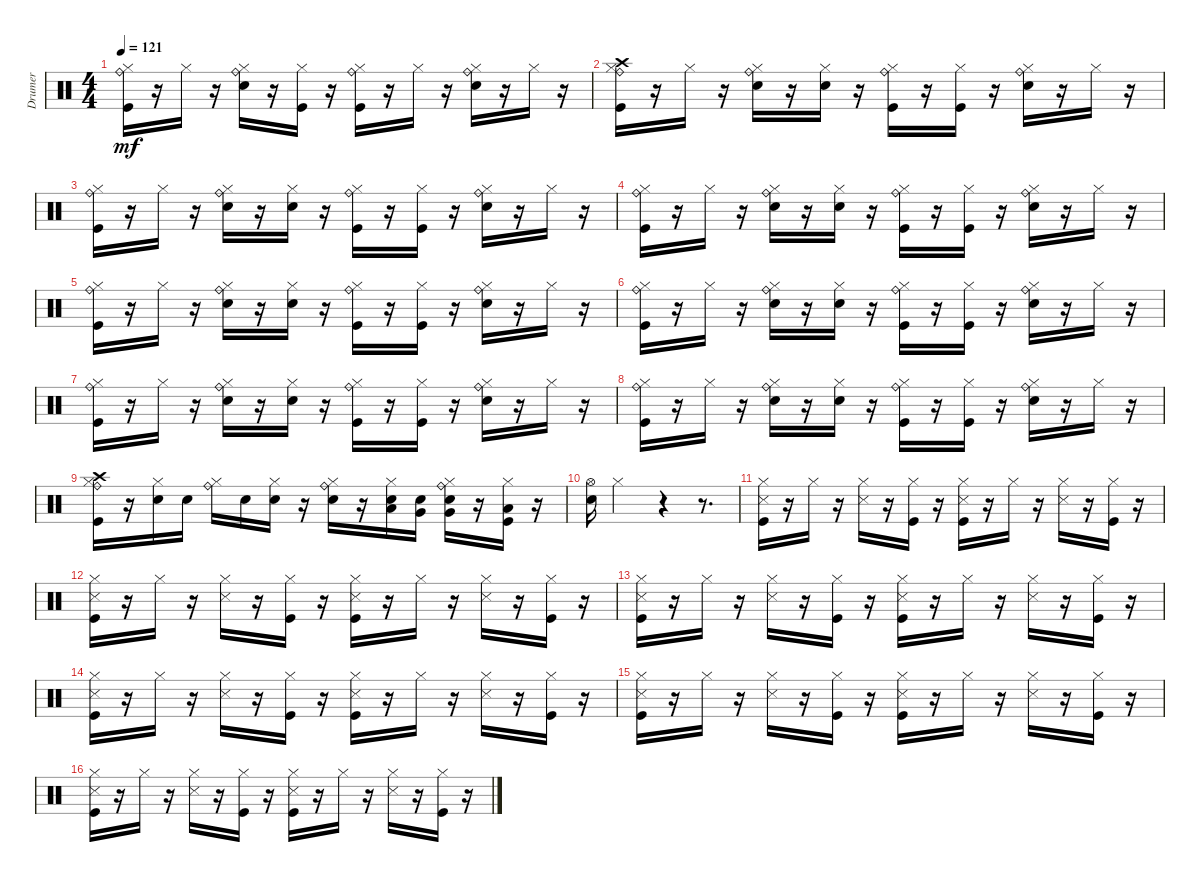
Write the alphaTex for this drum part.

\track ("Drumer" "Drumer") {instrument percussion}
\staff {score}
\articulation defaults
\ts (4 4)
\tempo 121
\clef neutral
\ks c
("Hi-Hat (closed)" "Ride (bell)" "Kick (hit)").16{dy mf} r.16 "Hi-Hat (closed)".16 r.16 ("Hi-Hat (closed)" "Ride (bell)" "Snare (hit) 2").16 r.16 ("Hi-Hat (closed)" "Kick (hit)").16 r.16 ("Hi-Hat (closed)" "Ride (bell)" "Kick (hit)").16 r.16 "Hi-Hat (closed)".16 r.16 ("Hi-Hat (closed)" "Ride (bell)" "Snare (hit) 2").16 r.16 "Hi-Hat (closed)".16 r.16 |
("Hi-Hat (closed)" "Ride (bell)" "Crash high (hit)" "Kick (hit)").16 r.16 "Hi-Hat (closed)".16 r.16 ("Hi-Hat (closed)" "Ride (bell)" "Snare (hit) 2").16 r.16 ("Hi-Hat (closed)" "Snare (hit) 2").16 r.16 ("Hi-Hat (closed)" "Ride (bell)" "Kick (hit)").16 r.16 ("Hi-Hat (closed)" "Kick (hit)").16 r.16 ("Hi-Hat (closed)" "Ride (bell)" "Snare (hit) 2").16 r.16 "Hi-Hat (closed)".16 r.16 |
("Hi-Hat (closed)" "Ride (bell)" "Kick (hit)").16 r.16 "Hi-Hat (closed)".16 r.16 ("Hi-Hat (closed)" "Ride (bell)" "Snare (hit) 2").16 r.16 ("Hi-Hat (closed)" "Snare (hit) 2").16 r.16 ("Hi-Hat (closed)" "Ride (bell)" "Kick (hit)").16 r.16 ("Hi-Hat (closed)" "Kick (hit)").16 r.16 ("Hi-Hat (closed)" "Ride (bell)" "Snare (hit) 2").16 r.16 "Hi-Hat (closed)".16 r.16 |
("Hi-Hat (closed)" "Ride (bell)" "Kick (hit)").16 r.16 "Hi-Hat (closed)".16 r.16 ("Hi-Hat (closed)" "Ride (bell)" "Snare (hit) 2").16 r.16 ("Hi-Hat (closed)" "Snare (hit) 2").16 r.16 ("Hi-Hat (closed)" "Ride (bell)" "Kick (hit)").16 r.16 ("Hi-Hat (closed)" "Kick (hit)").16 r.16 ("Hi-Hat (closed)" "Ride (bell)" "Snare (hit) 2").16 r.16 "Hi-Hat (closed)".16 r.16 |
("Hi-Hat (closed)" "Ride (bell)" "Kick (hit)").16 r.16 "Hi-Hat (closed)".16 r.16 ("Hi-Hat (closed)" "Ride (bell)" "Snare (hit) 2").16 r.16 ("Hi-Hat (closed)" "Snare (hit) 2").16 r.16 ("Hi-Hat (closed)" "Ride (bell)" "Kick (hit)").16 r.16 ("Hi-Hat (closed)" "Kick (hit)").16 r.16 ("Hi-Hat (closed)" "Ride (bell)" "Snare (hit) 2").16 r.16 "Hi-Hat (closed)".16 r.16 |
("Hi-Hat (closed)" "Ride (bell)" "Kick (hit)").16 r.16 "Hi-Hat (closed)".16 r.16 ("Hi-Hat (closed)" "Ride (bell)" "Snare (hit) 2").16 r.16 ("Hi-Hat (closed)" "Snare (hit) 2").16 r.16 ("Hi-Hat (closed)" "Ride (bell)" "Kick (hit)").16 r.16 ("Hi-Hat (closed)" "Kick (hit)").16 r.16 ("Hi-Hat (closed)" "Ride (bell)" "Snare (hit) 2").16 r.16 "Hi-Hat (closed)".16 r.16 |
("Hi-Hat (closed)" "Ride (bell)" "Kick (hit)").16 r.16 "Hi-Hat (closed)".16 r.16 ("Hi-Hat (closed)" "Ride (bell)" "Snare (hit) 2").16 r.16 ("Hi-Hat (closed)" "Snare (hit) 2").16 r.16 ("Hi-Hat (closed)" "Ride (bell)" "Kick (hit)").16 r.16 ("Hi-Hat (closed)" "Kick (hit)").16 r.16 ("Hi-Hat (closed)" "Ride (bell)" "Snare (hit) 2").16 r.16 "Hi-Hat (closed)".16 r.16 |
("Hi-Hat (closed)" "Ride (bell)" "Kick (hit)").16 r.16 "Hi-Hat (closed)".16 r.16 ("Hi-Hat (closed)" "Ride (bell)" "Snare (hit) 2").16 r.16 ("Hi-Hat (closed)" "Snare (hit) 2").16 r.16 ("Hi-Hat (closed)" "Ride (bell)" "Kick (hit)").16 r.16 ("Hi-Hat (closed)" "Kick (hit)").16 r.16 ("Hi-Hat (closed)" "Ride (bell)" "Snare (hit) 2").16 r.16 "Hi-Hat (closed)".16 r.16 |
("Hi-Hat (closed)" "Ride (bell)" "Kick (hit)" "Crash high (hit)").16 r.16 ("Hi-Hat (closed)" "Snare (hit) 2").16 "Snare (hit) 2".16 ("Hi-Hat (closed)" "Ride (bell)").16 "Snare (hit) 2".16 ("Hi-Hat (closed)" "Snare (hit) 2").16 r.16 ("Hi-Hat (closed)" "Ride (bell)" "Snare (hit) 2").16 r.16 ("Low Tom (hit)" "Hi-Hat (closed)" "Snare (hit) 2").16 ("Very Low Tom (hit)" "Snare (hit) 2").16 ("Hi-Hat (closed)" "Ride (bell)" "Snare (hit) 2" "Very Low Tom (hit)").16 r.16 ("Hi-Hat (closed)" "Kick (hit)" "Low Floor Tom (hit)").16 r.16 |
("Hi-Hat (open)" "Snare (hit) 2").16 "Hi-Hat (closed)".2 r.4 r.8{d} |
("Hi-Hat (closed)" "Snare (side stick) 3" "Kick (hit)").16 r.16 "Hi-Hat (closed)".16 r.16 ("Hi-Hat (closed)" "Snare (side stick) 3").16 r.16 ("Hi-Hat (closed)" "Kick (hit)").16 r.16 ("Hi-Hat (closed)" "Snare (side stick) 3" "Kick (hit)").16 r.16 "Hi-Hat (closed)".16 r.16 ("Hi-Hat (closed)" "Snare (side stick) 3").16 r.16 ("Hi-Hat (closed)" "Kick (hit)").16 r.16 |
("Hi-Hat (closed)" "Snare (side stick) 3" "Kick (hit)").16 r.16 "Hi-Hat (closed)".16 r.16 ("Hi-Hat (closed)" "Snare (side stick) 3").16 r.16 ("Hi-Hat (closed)" "Kick (hit)").16 r.16 ("Hi-Hat (closed)" "Snare (side stick) 3" "Kick (hit)").16 r.16 "Hi-Hat (closed)".16 r.16 ("Hi-Hat (closed)" "Snare (side stick) 3").16 r.16 ("Hi-Hat (closed)" "Kick (hit)").16 r.16 |
("Hi-Hat (closed)" "Snare (side stick) 3" "Kick (hit)").16 r.16 "Hi-Hat (closed)".16 r.16 ("Hi-Hat (closed)" "Snare (side stick) 3").16 r.16 ("Hi-Hat (closed)" "Kick (hit)").16 r.16 ("Hi-Hat (closed)" "Snare (side stick) 3" "Kick (hit)").16 r.16 "Hi-Hat (closed)".16 r.16 ("Hi-Hat (closed)" "Snare (side stick) 3").16 r.16 ("Hi-Hat (closed)" "Kick (hit)").16 r.16 |
("Hi-Hat (closed)" "Snare (side stick) 3" "Kick (hit)").16 r.16 "Hi-Hat (closed)".16 r.16 ("Hi-Hat (closed)" "Snare (side stick) 3").16 r.16 ("Hi-Hat (closed)" "Kick (hit)").16 r.16 ("Hi-Hat (closed)" "Snare (side stick) 3" "Kick (hit)").16 r.16 "Hi-Hat (closed)".16 r.16 ("Hi-Hat (closed)" "Snare (side stick) 3").16 r.16 ("Hi-Hat (closed)" "Kick (hit)").16 r.16 |
("Hi-Hat (closed)" "Snare (side stick) 3" "Kick (hit)").16 r.16 "Hi-Hat (closed)".16 r.16 ("Hi-Hat (closed)" "Snare (side stick) 3").16 r.16 ("Hi-Hat (closed)" "Kick (hit)").16 r.16 ("Hi-Hat (closed)" "Snare (side stick) 3" "Kick (hit)").16 r.16 "Hi-Hat (closed)".16 r.16 ("Hi-Hat (closed)" "Snare (side stick) 3").16 r.16 ("Hi-Hat (closed)" "Kick (hit)").16 r.16 |
("Hi-Hat (closed)" "Snare (side stick) 3" "Kick (hit)").16 r.16 "Hi-Hat (closed)".16 r.16 ("Hi-Hat (closed)" "Snare (side stick) 3").16 r.16 ("Hi-Hat (closed)" "Kick (hit)").16 r.16 ("Hi-Hat (closed)" "Snare (side stick) 3" "Kick (hit)").16 r.16 "Hi-Hat (closed)".16 r.16 ("Hi-Hat (closed)" "Snare (side stick) 3").16 r.16 ("Hi-Hat (closed)" "Kick (hit)").16 r.16
